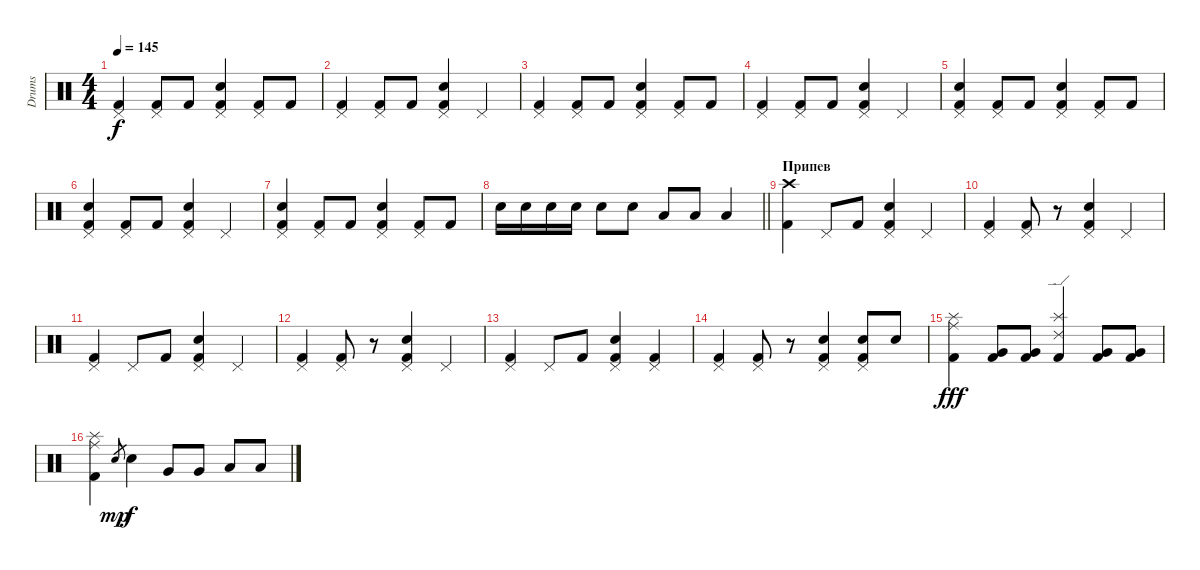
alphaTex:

\track ("Drums" "Drums") {instrument percussion}
\staff {score}
\articulation defaults
\ts (4 4)
\tempo 145
\clef neutral
\ks c
("Pedal Hi-Hat (hit)" "Kick (hit) 2").4{dy f} ("Pedal Hi-Hat (hit)" "Kick (hit) 2").8 "Kick (hit) 2".8 ("Pedal Hi-Hat (hit)" "Electric Snare (hit)" "Kick (hit) 2").4 ("Pedal Hi-Hat (hit)" "Kick (hit) 2").8 "Kick (hit) 2".8 |
("Pedal Hi-Hat (hit)" "Kick (hit) 2").4 ("Pedal Hi-Hat (hit)" "Kick (hit) 2").8 "Kick (hit) 2".8 ("Pedal Hi-Hat (hit)" "Electric Snare (hit)" "Kick (hit) 2").4 "Pedal Hi-Hat (hit)".4 |
("Pedal Hi-Hat (hit)" "Kick (hit) 2").4 ("Pedal Hi-Hat (hit)" "Kick (hit) 2").8 "Kick (hit) 2".8 ("Pedal Hi-Hat (hit)" "Electric Snare (hit)" "Kick (hit) 2").4 ("Pedal Hi-Hat (hit)" "Kick (hit) 2").8 "Kick (hit) 2".8 |
("Pedal Hi-Hat (hit)" "Kick (hit) 2").4 ("Pedal Hi-Hat (hit)" "Kick (hit) 2").8 "Kick (hit) 2".8 ("Pedal Hi-Hat (hit)" "Electric Snare (hit)" "Kick (hit) 2").4 "Pedal Hi-Hat (hit)".4 |
("Pedal Hi-Hat (hit)" "Electric Snare (hit)" "Kick (hit) 2").4 ("Pedal Hi-Hat (hit)" "Kick (hit) 2").8 "Kick (hit) 2".8 ("Pedal Hi-Hat (hit)" "Electric Snare (hit)" "Kick (hit) 2").4 ("Pedal Hi-Hat (hit)" "Kick (hit) 2").8 "Kick (hit) 2".8 |
("Pedal Hi-Hat (hit)" "Electric Snare (hit)" "Kick (hit) 2").4 ("Pedal Hi-Hat (hit)" "Kick (hit) 2").8 "Kick (hit) 2".8 ("Pedal Hi-Hat (hit)" "Electric Snare (hit)" "Kick (hit) 2").4 "Pedal Hi-Hat (hit)".4 |
("Pedal Hi-Hat (hit)" "Electric Snare (hit)" "Kick (hit) 2").4 ("Pedal Hi-Hat (hit)" "Kick (hit) 2").8 "Kick (hit) 2".8 ("Pedal Hi-Hat (hit)" "Electric Snare (hit)" "Kick (hit) 2").4 ("Pedal Hi-Hat (hit)" "Kick (hit) 2").8 "Kick (hit) 2".8 |
\barLineRight lightlight "Electric Snare (hit)".16 "Electric Snare (hit)".16 "Electric Snare (hit)".16 "Electric Snare (hit)".16 "Electric Snare (hit)".8 "Electric Snare (hit)".8 "Low Tom (hit)".8 "Low Tom (hit)".8 "Low Tom (hit)".4
|
\section ("" "Припев")
("Crash high (hit)" "Kick (hit) 2").4 "Pedal Hi-Hat (hit)".8 "Kick (hit) 2".8 ("Pedal Hi-Hat (hit)" "Electric Snare (hit)" "Kick (hit) 2").4 "Pedal Hi-Hat (hit)".4 |
("Pedal Hi-Hat (hit)" "Kick (hit) 2").4 ("Pedal Hi-Hat (hit)" "Kick (hit) 2").8 r.8 ("Pedal Hi-Hat (hit)" "Electric Snare (hit)" "Kick (hit) 2").4 "Pedal Hi-Hat (hit)".4 |
("Pedal Hi-Hat (hit)" "Kick (hit) 2").4 "Pedal Hi-Hat (hit)".8 "Kick (hit) 2".8 ("Pedal Hi-Hat (hit)" "Electric Snare (hit)" "Kick (hit) 2").4 "Pedal Hi-Hat (hit)".4 |
("Pedal Hi-Hat (hit)" "Kick (hit) 2").4 ("Pedal Hi-Hat (hit)" "Kick (hit) 2").8 r.8 ("Pedal Hi-Hat (hit)" "Electric Snare (hit)" "Kick (hit) 2").4 "Pedal Hi-Hat (hit)".4 |
("Pedal Hi-Hat (hit)" "Kick (hit) 2").4 "Pedal Hi-Hat (hit)".8 "Kick (hit) 2".8 ("Pedal Hi-Hat (hit)" "Electric Snare (hit)" "Kick (hit) 2").4 ("Pedal Hi-Hat (hit)" "Kick (hit) 2").4 |
("Pedal Hi-Hat (hit)" "Kick (hit) 2").4 ("Pedal Hi-Hat (hit)" "Kick (hit) 2").8 r.8 ("Pedal Hi-Hat (hit)" "Electric Snare (hit)" "Kick (hit) 2").4 ("Pedal Hi-Hat (hit)" "Electric Snare (hit)" "Kick (hit) 2").8 "Electric Snare (hit)".8 |
("Ride (middle)" "Splash (hit)" "Kick (hit) 2").4{dy fff} ("Very Low Tom (hit)" "Kick (hit) 2").8 ("Very Low Tom (hit)" "Kick (hit) 2").8 ("Ride (edge) 2" "Splash (hit)" "Kick (hit) 2").4 ("Very Low Tom (hit)" "Kick (hit) 2").8 ("Very Low Tom (hit)" "Kick (hit) 2").8 |
("Ride (middle)" "Splash (hit)" "Kick (hit) 2").4 "Electric Snare (hit)".8{gr dy mp} "Electric Snare (hit)".4{dy f} "Very Low Tom (hit)".8 "Very Low Tom (hit)".8 "Low Tom (hit)".8 "Low Tom (hit)".8
